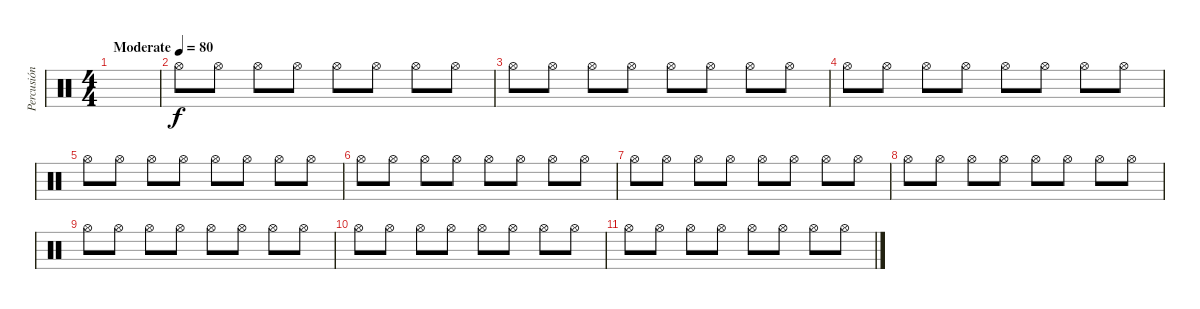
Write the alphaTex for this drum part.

\track ("Percusión" "Percusión") {instrument percussion}
\staff {score}
\articulation defaults
\ts (4 4)
\tempo (80 "Moderate")
\clef neutral
\ks c
|
"Hi-Hat (open)".8 "Hi-Hat (open)".8 "Hi-Hat (open)".8 "Hi-Hat (open)".8 "Hi-Hat (open)".8 "Hi-Hat (open)".8 "Hi-Hat (open)".8 "Hi-Hat (open)".8 |
"Hi-Hat (open)".8 "Hi-Hat (open)".8 "Hi-Hat (open)".8 "Hi-Hat (open)".8 "Hi-Hat (open)".8 "Hi-Hat (open)".8 "Hi-Hat (open)".8 "Hi-Hat (open)".8 |
"Hi-Hat (open)".8 "Hi-Hat (open)".8 "Hi-Hat (open)".8 "Hi-Hat (open)".8 "Hi-Hat (open)".8 "Hi-Hat (open)".8 "Hi-Hat (open)".8 "Hi-Hat (open)".8 |
"Hi-Hat (open)".8 "Hi-Hat (open)".8 "Hi-Hat (open)".8 "Hi-Hat (open)".8 "Hi-Hat (open)".8 "Hi-Hat (open)".8 "Hi-Hat (open)".8 "Hi-Hat (open)".8 |
"Hi-Hat (open)".8 "Hi-Hat (open)".8 "Hi-Hat (open)".8 "Hi-Hat (open)".8 "Hi-Hat (open)".8 "Hi-Hat (open)".8 "Hi-Hat (open)".8 "Hi-Hat (open)".8 |
"Hi-Hat (open)".8 "Hi-Hat (open)".8 "Hi-Hat (open)".8 "Hi-Hat (open)".8 "Hi-Hat (open)".8 "Hi-Hat (open)".8 "Hi-Hat (open)".8 "Hi-Hat (open)".8 |
"Hi-Hat (open)".8 "Hi-Hat (open)".8 "Hi-Hat (open)".8 "Hi-Hat (open)".8 "Hi-Hat (open)".8 "Hi-Hat (open)".8 "Hi-Hat (open)".8 "Hi-Hat (open)".8 |
"Hi-Hat (open)".8 "Hi-Hat (open)".8 "Hi-Hat (open)".8 "Hi-Hat (open)".8 "Hi-Hat (open)".8 "Hi-Hat (open)".8 "Hi-Hat (open)".8 "Hi-Hat (open)".8 |
"Hi-Hat (open)".8 "Hi-Hat (open)".8 "Hi-Hat (open)".8 "Hi-Hat (open)".8 "Hi-Hat (open)".8 "Hi-Hat (open)".8 "Hi-Hat (open)".8 "Hi-Hat (open)".8 |
"Hi-Hat (open)".8 "Hi-Hat (open)".8 "Hi-Hat (open)".8 "Hi-Hat (open)".8 "Hi-Hat (open)".8 "Hi-Hat (open)".8 "Hi-Hat (open)".8 "Hi-Hat (open)".8
